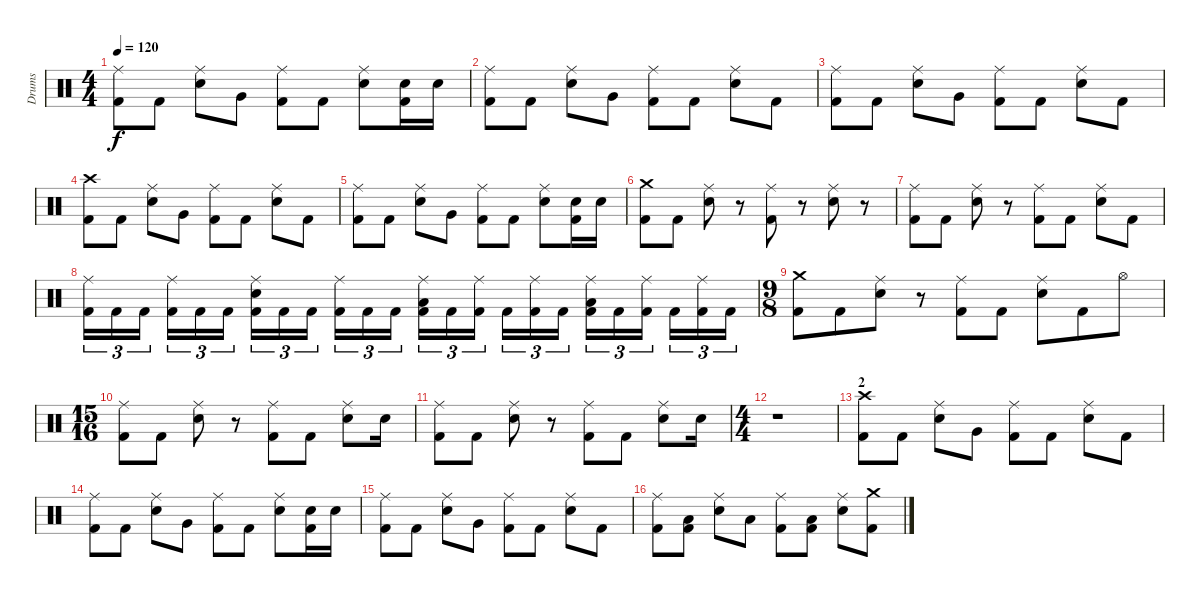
\track ("Drums" "Drums") {instrument percussion}
\staff {score}
\articulation defaults
\ts (4 4)
\tempo 120
\clef neutral
\ks c
("Ride (middle)" "Kick (hit) 2").8{dy f} "Kick (hit) 2".8 ("Ride (middle)" "Electric Snare (hit)").8 "Very Low Tom (hit)".8 ("Ride (middle)" "Kick (hit) 2").8 "Kick (hit) 2".8 ("Ride (middle)" "Electric Snare (hit)").8 ("Electric Snare (hit)" "Kick (hit) 2").16 "Electric Snare (hit)".16 |
("Ride (middle)" "Kick (hit) 2").8 "Kick (hit) 2".8 ("Ride (middle)" "Electric Snare (hit)").8 "Very Low Tom (hit)".8 ("Ride (middle)" "Kick (hit) 2").8 "Kick (hit) 2".8 ("Ride (middle)" "Electric Snare (hit)").8 "Kick (hit) 2".8 |
("Ride (middle)" "Kick (hit) 2").8 "Kick (hit) 2".8 ("Ride (middle)" "Electric Snare (hit)").8 "Very Low Tom (hit)".8 ("Ride (middle)" "Kick (hit) 2").8 "Kick (hit) 2".8 ("Ride (middle)" "Electric Snare (hit)").8 "Kick (hit) 2".8 |
("Crash high (hit)" "Kick (hit) 2").8 "Kick (hit) 2".8 ("Ride (middle)" "Electric Snare (hit)").8 "Very Low Tom (hit)".8 ("Ride (middle)" "Kick (hit) 2").8 "Kick (hit) 2".8 ("Ride (middle)" "Electric Snare (hit)").8 "Kick (hit) 2".8 |
("Ride (middle)" "Kick (hit) 2").8 "Kick (hit) 2".8 ("Ride (middle)" "Electric Snare (hit)").8 "Very Low Tom (hit)".8 ("Ride (middle)" "Kick (hit) 2").8 "Kick (hit) 2".8 ("Ride (middle)" "Electric Snare (hit)").8 ("Electric Snare (hit)" "Kick (hit) 2").16 "Electric Snare (hit)".16 |
("Crash medium (hit)" "Kick (hit) 2").8 "Kick (hit) 2".8 ("Ride (middle)" "Electric Snare (hit)").8 r.8 ("Ride (middle)" "Kick (hit) 2").8 r.8 ("Ride (middle)" "Electric Snare (hit)").8 r.8 |
("Ride (middle)" "Kick (hit) 2").8 "Kick (hit) 2".8 ("Ride (middle)" "Electric Snare (hit)").8 r.8 ("Ride (middle)" "Kick (hit) 2").8 "Kick (hit) 2".8 ("Ride (middle)" "Electric Snare (hit)").8 "Kick (hit) 2".8 |
("Ride (middle)" "Kick (hit) 2").16{tu (3 2)} "Kick (hit) 2".16{tu (3 2)} "Kick (hit) 2".16{tu (3 2)} ("Ride (middle)" "Kick (hit) 2").16{tu (3 2)} "Kick (hit) 2".16{tu (3 2)} "Kick (hit) 2".16{tu (3 2)} ("Ride (middle)" "Electric Snare (hit)" "Kick (hit) 2").16{tu (3 2)} "Kick (hit) 2".16{tu (3 2)} "Kick (hit) 2".16{tu (3 2)} ("Ride (middle)" "Kick (hit) 2").16{tu (3 2)} "Kick (hit) 2".16{tu (3 2)} "Kick (hit) 2".16{tu (3 2)} ("Ride (middle)" "Low Tom (hit)" "Kick (hit) 2").16{tu (3 2)} "Kick (hit) 2".16{tu (3 2)} ("Ride (middle)" "Kick (hit) 2").16{tu (3 2)} "Kick (hit) 2".16{tu (3 2)} ("Ride (middle)" "Kick (hit) 2").16{tu (3 2)} "Kick (hit) 2".16{tu (3 2)} ("Ride (middle)" "Low Tom (hit)" "Kick (hit) 2").16{tu (3 2)} "Kick (hit) 2".16{tu (3 2)} ("Ride (middle)" "Kick (hit) 2").16{tu (3 2)} "Kick (hit) 2".16{tu (3 2)} ("Ride (middle)" "Kick (hit) 2").16{tu (3 2)} "Kick (hit) 2".16{tu (3 2)} |
\ts (9 8)
("Crash medium (hit)" "Kick (hit) 2").8 "Kick (hit) 2".8 ("Ride (middle)" "Electric Snare (hit)").8 r.8 ("Ride (middle)" "Kick (hit) 2").8 "Kick (hit) 2".8 ("Ride (middle)" "Electric Snare (hit)").8 "Kick (hit) 2".8 "Hi-Hat (open)".8 |
\ts (15 16)
("Ride (middle)" "Kick (hit) 2").8 "Kick (hit) 2".8 ("Ride (middle)" "Electric Snare (hit)").8 r.8 ("Ride (middle)" "Kick (hit) 2").8 "Kick (hit) 2".8 ("Ride (middle)" "Electric Snare (hit)").8 "Electric Snare (hit)".16 |
("Ride (middle)" "Kick (hit) 2").8 "Kick (hit) 2".8 ("Ride (middle)" "Electric Snare (hit)").8 r.8 ("Ride (middle)" "Kick (hit) 2").8 "Kick (hit) 2".8 ("Ride (middle)" "Electric Snare (hit)").8 "Electric Snare (hit)".16 |
\ts (4 4)
r.1 |
\section ("" "2")
("Crash high (hit)" "Kick (hit) 2").8 "Kick (hit) 2".8 ("Ride (middle)" "Electric Snare (hit)").8 "Very Low Tom (hit)".8 ("Ride (middle)" "Kick (hit) 2").8 "Kick (hit) 2".8 ("Ride (middle)" "Electric Snare (hit)").8 "Kick (hit) 2".8 |
("Ride (middle)" "Kick (hit) 2").8 "Kick (hit) 2".8 ("Ride (middle)" "Electric Snare (hit)").8 "Very Low Tom (hit)".8 ("Ride (middle)" "Kick (hit) 2").8 "Kick (hit) 2".8 ("Ride (middle)" "Electric Snare (hit)").8 ("Electric Snare (hit)" "Kick (hit) 2").16 "Electric Snare (hit)".16 |
("Ride (middle)" "Kick (hit) 2").8 "Kick (hit) 2".8 ("Ride (middle)" "Electric Snare (hit)").8 "Very Low Tom (hit)".8 ("Ride (middle)" "Kick (hit) 2").8 "Kick (hit) 2".8 ("Ride (middle)" "Electric Snare (hit)").8 "Kick (hit) 2".8 |
("Ride (middle)" "Kick (hit) 2").8 ("Low Tom (hit)" "Kick (hit) 2").8 ("Ride (middle)" "Electric Snare (hit)").8 "Low Tom (hit)".8 ("Ride (middle)" "Kick (hit) 2").8 ("Low Tom (hit)" "Kick (hit) 2").8 ("Ride (middle)" "Electric Snare (hit)").8 ("Crash medium (hit)" "Kick (hit) 2").8
